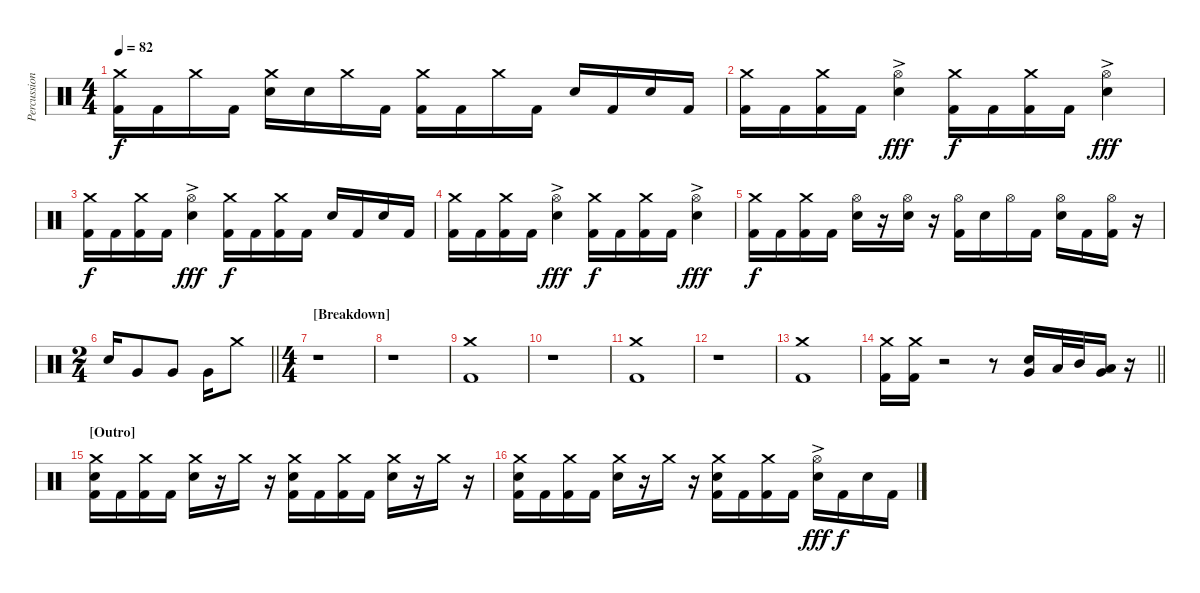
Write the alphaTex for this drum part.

\track ("Percussion" "Percussion") {instrument percussion}
\staff {score}
\articulation defaults
\ts (4 4)
\tempo 82
\clef neutral
\ks c
("Crash medium (hit)" "Kick (hit) 2").16{dy f} "Kick (hit) 2".16 "Crash medium (hit)".16 "Kick (hit) 2".16 ("Crash medium (hit)" "Electric Snare (hit)").16 "Electric Snare (hit)".16 "Crash medium (hit)".16 "Kick (hit) 2".16 ("Crash medium (hit)" "Kick (hit) 2").16 "Kick (hit) 2".16 "Crash medium (hit)".16 "Kick (hit) 2".16 "Electric Snare (hit)".16 "Kick (hit) 2".16 "Electric Snare (hit)".16 "Kick (hit) 2".16 |
("Crash medium (hit)" "Kick (hit) 2").16 "Kick (hit) 2".16 ("Crash medium (hit)" "Kick (hit) 2").16 "Kick (hit) 2".16 ("Hi-Hat (open)"{ac} "Electric Snare (hit)").4{dy fff} ("Crash medium (hit)" "Kick (hit) 2").16{dy f} "Kick (hit) 2".16 ("Crash medium (hit)" "Kick (hit) 2").16 "Kick (hit) 2".16 ("Hi-Hat (open)"{ac} "Electric Snare (hit)").4{dy fff} |
("Crash medium (hit)" "Kick (hit) 2").16{dy f} "Kick (hit) 2".16 ("Crash medium (hit)" "Kick (hit) 2").16 "Kick (hit) 2".16 ("Hi-Hat (open)"{ac} "Electric Snare (hit)").4{dy fff} ("Crash medium (hit)" "Kick (hit) 2").16{dy f} "Kick (hit) 2".16 ("Crash medium (hit)" "Kick (hit) 2").16 "Kick (hit) 2".16 "Electric Snare (hit)".16 "Kick (hit) 2".16 "Electric Snare (hit)".16 "Kick (hit) 2".16 |
("Crash medium (hit)" "Kick (hit) 2").16 "Kick (hit) 2".16 ("Crash medium (hit)" "Kick (hit) 2").16 "Kick (hit) 2".16 ("Hi-Hat (open)"{ac} "Electric Snare (hit)").4{dy fff} ("Crash medium (hit)" "Kick (hit) 2").16{dy f} "Kick (hit) 2".16 ("Crash medium (hit)" "Kick (hit) 2").16 "Kick (hit) 2".16 ("Hi-Hat (open)"{ac} "Electric Snare (hit)").4{dy fff} |
("Crash medium (hit)" "Kick (hit) 2").16{dy f} "Kick (hit) 2".16 ("Crash medium (hit)" "Kick (hit) 2").16 "Kick (hit) 2".16 ("Hi-Hat (open)" "Electric Snare (hit)").16 r.16 ("Hi-Hat (open)" "Electric Snare (hit)").16 r.16 ("Hi-Hat (open)" "Kick (hit) 2").16 "Electric Snare (hit)".16 "Hi-Hat (open)".16 "Kick (hit) 2".16 ("Hi-Hat (open)" "Electric Snare (hit)").16 "Kick (hit) 2".16 ("Hi-Hat (open)" "Kick (hit) 2").16 r.16 |
\ts (2 4)
\barLineRight lightlight "Electric Snare (hit)".16 "Very Low Tom (hit)".8 "Very Low Tom (hit)".8 "Very Low Tom (hit)".16 "Crash medium (hit)".8
|
\ts (4 4)
\section ("" "[Breakdown]")
r.1 |
r.1 |
("Crash medium (hit)" "Kick (hit) 2").1 |
r.1 |
("Crash medium (hit)" "Kick (hit) 2").1 |
r.1 |
("Crash medium (hit)" "Kick (hit) 2").1 |
\barLineRight lightlight
("Crash medium (hit)" "Kick (hit) 2").16 ("Crash medium (hit)" "Kick (hit) 2").16 r.2 r.8 ("Very Low Tom (hit)" "Electric Snare (hit)").16 "Low Tom (hit)".32 "Mid Tom (hit)".32 ("Very Low Tom (hit)" "Low Floor Tom (hit)").16 r.16 |
\section ("" "[Outro]")
("Crash medium (hit)" "Electric Snare (hit)" "Kick (hit) 2").16 "Kick (hit) 2".16 ("Crash medium (hit)" "Kick (hit) 2").16 "Kick (hit) 2".16 ("Crash medium (hit)" "Electric Snare (hit)").16 r.16 "Crash medium (hit)".16 r.16 ("Crash medium (hit)" "Electric Snare (hit)" "Kick (hit) 2").16 "Kick (hit) 2".16 ("Crash medium (hit)" "Kick (hit) 2").16 "Kick (hit) 2".16 ("Crash medium (hit)" "Electric Snare (hit)").16 r.16 "Crash medium (hit)".16 r.16 |
("Crash medium (hit)" "Electric Snare (hit)" "Kick (hit) 2").16 "Kick (hit) 2".16 ("Crash medium (hit)" "Kick (hit) 2").16 "Kick (hit) 2".16 ("Crash medium (hit)" "Electric Snare (hit)").16 r.16 "Crash medium (hit)".16 r.16 ("Crash medium (hit)" "Electric Snare (hit)" "Kick (hit) 2").16 "Kick (hit) 2".16 ("Crash medium (hit)" "Kick (hit) 2").16 "Kick (hit) 2".16 ("Hi-Hat (open)"{ac} "Electric Snare (hit)").16{dy fff} "Kick (hit) 2".16{dy f} "Electric Snare (hit)".16 "Kick (hit) 2".16
